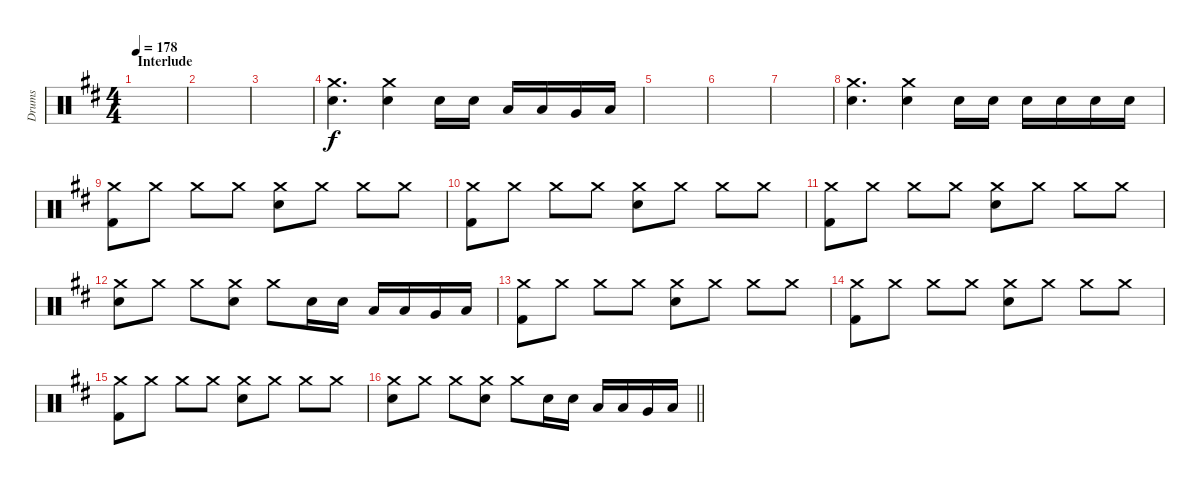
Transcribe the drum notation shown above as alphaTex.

\track ("Drums" "Drums") {instrument percussion}
\staff {score}
\articulation defaults
\ts (4 4)
\section ("" "Interlude")
\tempo 178
\clef neutral
\ks bminor
|
|
|
("Crash medium (hit)" "Snare (hit) 2").4{d} ("Crash medium (hit)" "Snare (hit) 2").4 "Snare (hit) 2".16 "Snare (hit) 2".16 "Low Tom (hit)".16 "Low Tom (hit)".16 "Very Low Tom (hit)".16 "Low Floor Tom (hit)".16 |
|
|
|
("Crash medium (hit)" "Snare (hit) 2").4{d} ("Crash medium (hit)" "Snare (hit) 2").4 "Snare (hit) 2".16 "Snare (hit) 2".16 "Snare (hit) 2".16 "Snare (hit) 2".16 "Snare (hit) 2".16 "Snare (hit) 2".16 |
("Crash medium (hit)" "Kick (hit) 2").8 "Crash medium (hit)".8 "Crash medium (hit)".8 "Crash medium (hit)".8 ("Crash medium (hit)" "Snare (hit) 2").8 "Crash medium (hit)".8 "Crash medium (hit)".8 "Crash medium (hit)".8 |
("Crash medium (hit)" "Kick (hit) 2").8 "Crash medium (hit)".8 "Crash medium (hit)".8 "Crash medium (hit)".8 ("Crash medium (hit)" "Snare (hit) 2").8 "Crash medium (hit)".8 "Crash medium (hit)".8 "Crash medium (hit)".8 |
("Crash medium (hit)" "Kick (hit) 2").8 "Crash medium (hit)".8 "Crash medium (hit)".8 "Crash medium (hit)".8 ("Crash medium (hit)" "Snare (hit) 2").8 "Crash medium (hit)".8 "Crash medium (hit)".8 "Crash medium (hit)".8 |
("Crash medium (hit)" "Snare (hit) 2").8 "Crash medium (hit)".8 "Crash medium (hit)".8 ("Crash medium (hit)" "Snare (hit) 2").8 "Crash medium (hit)".8 "Snare (hit) 2".16 "Snare (hit) 2".16 "Low Tom (hit)".16 "Low Tom (hit)".16 "Very Low Tom (hit)".16 "Low Floor Tom (hit)".16 |
("Crash medium (hit)" "Kick (hit) 2").8 "Crash medium (hit)".8 "Crash medium (hit)".8 "Crash medium (hit)".8 ("Crash medium (hit)" "Snare (hit) 2").8 "Crash medium (hit)".8 "Crash medium (hit)".8 "Crash medium (hit)".8 |
("Crash medium (hit)" "Kick (hit) 2").8 "Crash medium (hit)".8 "Crash medium (hit)".8 "Crash medium (hit)".8 ("Crash medium (hit)" "Snare (hit) 2").8 "Crash medium (hit)".8 "Crash medium (hit)".8 "Crash medium (hit)".8 |
("Crash medium (hit)" "Kick (hit) 2").8 "Crash medium (hit)".8 "Crash medium (hit)".8 "Crash medium (hit)".8 ("Crash medium (hit)" "Snare (hit) 2").8 "Crash medium (hit)".8 "Crash medium (hit)".8 "Crash medium (hit)".8 |
\barLineRight lightlight
("Crash medium (hit)" "Snare (hit) 2").8 "Crash medium (hit)".8 "Crash medium (hit)".8 ("Crash medium (hit)" "Snare (hit) 2").8 "Crash medium (hit)".8 "Snare (hit) 2".16 "Snare (hit) 2".16 "Low Tom (hit)".16 "Low Tom (hit)".16 "Very Low Tom (hit)".16 "Low Floor Tom (hit)".16
